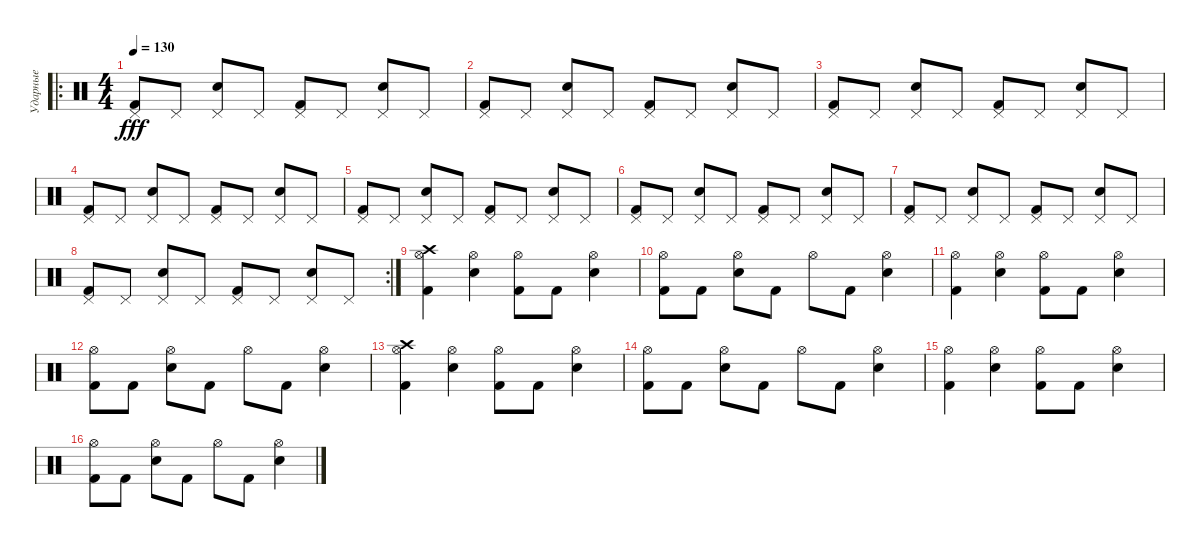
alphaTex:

\track ("Ударные" "Ударные") {instrument percussion}
\staff {score}
\articulation defaults
\ro
\ts (4 4)
\tempo 130
\clef neutral
\ks c
("Pedal Hi-Hat (hit)" "Kick (hit) 2").8{dy fff} "Pedal Hi-Hat (hit)".8 ("Pedal Hi-Hat (hit)" "Snare (hit) 2").8 "Pedal Hi-Hat (hit)".8 ("Pedal Hi-Hat (hit)" "Kick (hit) 2").8 "Pedal Hi-Hat (hit)".8 ("Pedal Hi-Hat (hit)" "Snare (hit) 2").8 "Pedal Hi-Hat (hit)".8 |
("Pedal Hi-Hat (hit)" "Kick (hit) 2").8 "Pedal Hi-Hat (hit)".8 ("Pedal Hi-Hat (hit)" "Snare (hit) 2").8 "Pedal Hi-Hat (hit)".8 ("Pedal Hi-Hat (hit)" "Kick (hit) 2").8 "Pedal Hi-Hat (hit)".8 ("Pedal Hi-Hat (hit)" "Snare (hit) 2").8 "Pedal Hi-Hat (hit)".8 |
("Pedal Hi-Hat (hit)" "Kick (hit) 2").8 "Pedal Hi-Hat (hit)".8 ("Pedal Hi-Hat (hit)" "Snare (hit) 2").8 "Pedal Hi-Hat (hit)".8 ("Pedal Hi-Hat (hit)" "Kick (hit) 2").8 "Pedal Hi-Hat (hit)".8 ("Pedal Hi-Hat (hit)" "Snare (hit) 2").8 "Pedal Hi-Hat (hit)".8 |
("Pedal Hi-Hat (hit)" "Kick (hit) 2").8 "Pedal Hi-Hat (hit)".8 ("Pedal Hi-Hat (hit)" "Snare (hit) 2").8 "Pedal Hi-Hat (hit)".8 ("Pedal Hi-Hat (hit)" "Kick (hit) 2").8 "Pedal Hi-Hat (hit)".8 ("Pedal Hi-Hat (hit)" "Snare (hit) 2").8 "Pedal Hi-Hat (hit)".8 |
("Pedal Hi-Hat (hit)" "Kick (hit) 2").8 "Pedal Hi-Hat (hit)".8 ("Pedal Hi-Hat (hit)" "Snare (hit) 2").8 "Pedal Hi-Hat (hit)".8 ("Pedal Hi-Hat (hit)" "Kick (hit) 2").8 "Pedal Hi-Hat (hit)".8 ("Pedal Hi-Hat (hit)" "Snare (hit) 2").8 "Pedal Hi-Hat (hit)".8 |
("Pedal Hi-Hat (hit)" "Kick (hit) 2").8 "Pedal Hi-Hat (hit)".8 ("Pedal Hi-Hat (hit)" "Snare (hit) 2").8 "Pedal Hi-Hat (hit)".8 ("Pedal Hi-Hat (hit)" "Kick (hit) 2").8 "Pedal Hi-Hat (hit)".8 ("Pedal Hi-Hat (hit)" "Snare (hit) 2").8 "Pedal Hi-Hat (hit)".8 |
("Pedal Hi-Hat (hit)" "Kick (hit) 2").8 "Pedal Hi-Hat (hit)".8 ("Pedal Hi-Hat (hit)" "Snare (hit) 2").8 "Pedal Hi-Hat (hit)".8 ("Pedal Hi-Hat (hit)" "Kick (hit) 2").8 "Pedal Hi-Hat (hit)".8 ("Pedal Hi-Hat (hit)" "Snare (hit) 2").8 "Pedal Hi-Hat (hit)".8 |
\rc 2
("Pedal Hi-Hat (hit)" "Kick (hit) 2").8 "Pedal Hi-Hat (hit)".8 ("Pedal Hi-Hat (hit)" "Snare (hit) 2").8 "Pedal Hi-Hat (hit)".8 ("Pedal Hi-Hat (hit)" "Kick (hit) 2").8 "Pedal Hi-Hat (hit)".8 ("Pedal Hi-Hat (hit)" "Snare (hit) 2").8 "Pedal Hi-Hat (hit)".8 |
("Hi-Hat (open)" "Crash high (hit)" "Kick (hit) 2").4 ("Hi-Hat (open)" "Snare (hit) 2").4 ("Hi-Hat (open)" "Kick (hit) 2").8 "Kick (hit) 2".8 ("Hi-Hat (open)" "Snare (hit) 2").4 |
("Hi-Hat (open)" "Kick (hit) 2").8 "Kick (hit) 2".8 ("Hi-Hat (open)" "Snare (hit) 2").8 "Kick (hit) 2".8 "Hi-Hat (open)".8 "Kick (hit) 2".8 ("Hi-Hat (open)" "Snare (hit) 2").4 |
("Hi-Hat (open)" "Kick (hit) 2").4 ("Hi-Hat (open)" "Snare (hit) 2").4 ("Hi-Hat (open)" "Kick (hit) 2").8 "Kick (hit) 2".8 ("Hi-Hat (open)" "Snare (hit) 2").4 |
("Hi-Hat (open)" "Kick (hit) 2").8 "Kick (hit) 2".8 ("Hi-Hat (open)" "Snare (hit) 2").8 "Kick (hit) 2".8 "Hi-Hat (open)".8 "Kick (hit) 2".8 ("Hi-Hat (open)" "Snare (hit) 2").4 |
("Hi-Hat (open)" "Crash high (hit)" "Kick (hit) 2").4 ("Hi-Hat (open)" "Snare (hit) 2").4 ("Hi-Hat (open)" "Kick (hit) 2").8 "Kick (hit) 2".8 ("Hi-Hat (open)" "Snare (hit) 2").4 |
("Hi-Hat (open)" "Kick (hit) 2").8 "Kick (hit) 2".8 ("Hi-Hat (open)" "Snare (hit) 2").8 "Kick (hit) 2".8 "Hi-Hat (open)".8 "Kick (hit) 2".8 ("Hi-Hat (open)" "Snare (hit) 2").4 |
("Hi-Hat (open)" "Kick (hit) 2").4 ("Hi-Hat (open)" "Snare (hit) 2").4 ("Hi-Hat (open)" "Kick (hit) 2").8 "Kick (hit) 2".8 ("Hi-Hat (open)" "Snare (hit) 2").4 |
("Hi-Hat (open)" "Kick (hit) 2").8 "Kick (hit) 2".8 ("Hi-Hat (open)" "Snare (hit) 2").8 "Kick (hit) 2".8 "Hi-Hat (open)".8 "Kick (hit) 2".8 ("Hi-Hat (open)" "Snare (hit) 2").4
